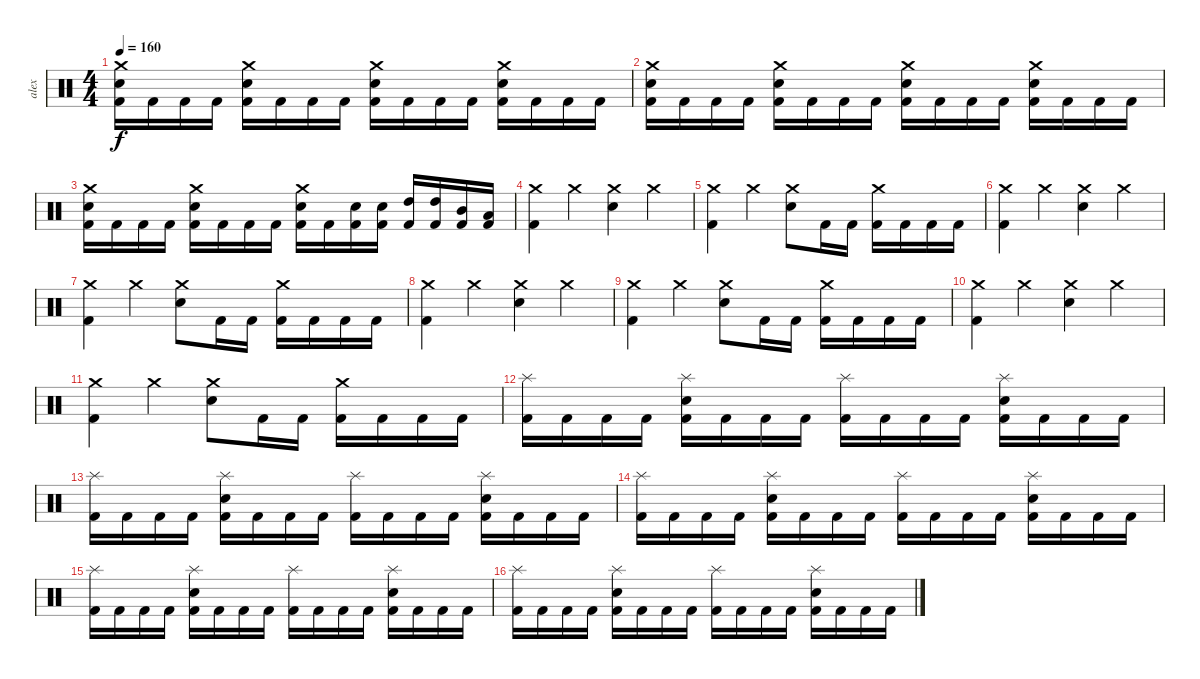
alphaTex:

\track ("alex" "alex") {instrument percussion}
\staff {score}
\articulation defaults
\ts (4 4)
\tempo 160
\clef neutral
\ks c
("Electric Snare (hit)" "Kick (hit) 2" "Crash medium (hit)").16{dy f} "Kick (hit) 2".16 "Kick (hit) 2".16 "Kick (hit) 2".16 ("Electric Snare (hit)" "Kick (hit) 2" "Crash medium (hit)").16 "Kick (hit) 2".16 "Kick (hit) 2".16 "Kick (hit) 2".16 ("Electric Snare (hit)" "Kick (hit) 2" "Crash medium (hit)").16 "Kick (hit) 2".16 "Kick (hit) 2".16 "Kick (hit) 2".16 ("Electric Snare (hit)" "Kick (hit) 2" "Crash medium (hit)").16 "Kick (hit) 2".16 "Kick (hit) 2".16 "Kick (hit) 2".16 |
("Electric Snare (hit)" "Kick (hit) 2" "Crash medium (hit)").16 "Kick (hit) 2".16 "Kick (hit) 2".16 "Kick (hit) 2".16 ("Electric Snare (hit)" "Kick (hit) 2" "Crash medium (hit)").16 "Kick (hit) 2".16 "Kick (hit) 2".16 "Kick (hit) 2".16 ("Electric Snare (hit)" "Kick (hit) 2" "Crash medium (hit)").16 "Kick (hit) 2".16 "Kick (hit) 2".16 "Kick (hit) 2".16 ("Electric Snare (hit)" "Kick (hit) 2" "Crash medium (hit)").16 "Kick (hit) 2".16 "Kick (hit) 2".16 "Kick (hit) 2".16 |
("Electric Snare (hit)" "Kick (hit) 2" "Crash medium (hit)").16 "Kick (hit) 2".16 "Kick (hit) 2".16 "Kick (hit) 2".16 ("Electric Snare (hit)" "Kick (hit) 2" "Crash medium (hit)").16 "Kick (hit) 2".16 "Kick (hit) 2".16 "Kick (hit) 2".16 ("Electric Snare (hit)" "Kick (hit) 2" "Crash medium (hit)").16 "Kick (hit) 2".16 ("Snare (hit) 2" "Kick (hit) 2").16 ("Snare (hit) 2" "Kick (hit) 2").16 ("High Tom (hit)" "Kick (hit) 2").16 ("High Tom (hit)" "Kick (hit) 2").16 ("Mid Tom (hit)" "Kick (hit) 2").16 ("Low Tom (hit)" "Kick (hit) 2").16 |
("Kick (hit) 2" "Crash medium (hit)").4 "Crash medium (hit)".4 ("Electric Snare (hit)" "Crash medium (hit)").4 "Crash medium (hit)".4 |
("Kick (hit) 2" "Crash medium (hit)").4 "Crash medium (hit)".4 ("Electric Snare (hit)" "Crash medium (hit)").8 "Kick (hit) 2".16 "Kick (hit) 2".16 ("Kick (hit) 2" "Crash medium (hit)").16 "Kick (hit) 2".16 "Kick (hit) 2".16 "Kick (hit) 2".16 |
("Kick (hit) 2" "Crash medium (hit)").4 "Crash medium (hit)".4 ("Electric Snare (hit)" "Crash medium (hit)").4 "Crash medium (hit)".4 |
("Kick (hit) 2" "Crash medium (hit)").4 "Crash medium (hit)".4 ("Electric Snare (hit)" "Crash medium (hit)").8 "Kick (hit) 2".16 "Kick (hit) 2".16 ("Kick (hit) 2" "Crash medium (hit)").16 "Kick (hit) 2".16 "Kick (hit) 2".16 "Kick (hit) 2".16 |
("Kick (hit) 2" "Crash medium (hit)").4 "Crash medium (hit)".4 ("Electric Snare (hit)" "Crash medium (hit)").4 "Crash medium (hit)".4 |
("Kick (hit) 2" "Crash medium (hit)").4 "Crash medium (hit)".4 ("Electric Snare (hit)" "Crash medium (hit)").8 "Kick (hit) 2".16 "Kick (hit) 2".16 ("Kick (hit) 2" "Crash medium (hit)").16 "Kick (hit) 2".16 "Kick (hit) 2".16 "Kick (hit) 2".16 |
("Kick (hit) 2" "Crash medium (hit)").4 "Crash medium (hit)".4 ("Electric Snare (hit)" "Crash medium (hit)").4 "Crash medium (hit)".4 |
("Kick (hit) 2" "Crash medium (hit)").4 "Crash medium (hit)".4 ("Electric Snare (hit)" "Crash medium (hit)").8 "Kick (hit) 2".16 "Kick (hit) 2".16 ("Kick (hit) 2" "Crash medium (hit)").16 "Kick (hit) 2".16 "Kick (hit) 2".16 "Kick (hit) 2".16 |
("Splash (hit)" "Kick (hit) 2").16 "Kick (hit) 2".16 "Kick (hit) 2".16 "Kick (hit) 2".16 ("Kick (hit) 2" "Electric Snare (hit)" "Splash (hit)").16 "Kick (hit) 2".16 "Kick (hit) 2".16 "Kick (hit) 2".16 ("Kick (hit) 2" "Splash (hit)").16 "Kick (hit) 2".16 "Kick (hit) 2".16 "Kick (hit) 2".16 ("Kick (hit) 2" "Splash (hit)" "Electric Snare (hit)").16 "Kick (hit) 2".16 "Kick (hit) 2".16 "Kick (hit) 2".16 |
("Splash (hit)" "Kick (hit) 2").16 "Kick (hit) 2".16 "Kick (hit) 2".16 "Kick (hit) 2".16 ("Kick (hit) 2" "Electric Snare (hit)" "Splash (hit)").16 "Kick (hit) 2".16 "Kick (hit) 2".16 "Kick (hit) 2".16 ("Kick (hit) 2" "Splash (hit)").16 "Kick (hit) 2".16 "Kick (hit) 2".16 "Kick (hit) 2".16 ("Kick (hit) 2" "Splash (hit)" "Electric Snare (hit)").16 "Kick (hit) 2".16 "Kick (hit) 2".16 "Kick (hit) 2".16 |
("Splash (hit)" "Kick (hit) 2").16 "Kick (hit) 2".16 "Kick (hit) 2".16 "Kick (hit) 2".16 ("Kick (hit) 2" "Electric Snare (hit)" "Splash (hit)").16 "Kick (hit) 2".16 "Kick (hit) 2".16 "Kick (hit) 2".16 ("Kick (hit) 2" "Splash (hit)").16 "Kick (hit) 2".16 "Kick (hit) 2".16 "Kick (hit) 2".16 ("Kick (hit) 2" "Splash (hit)" "Electric Snare (hit)").16 "Kick (hit) 2".16 "Kick (hit) 2".16 "Kick (hit) 2".16 |
("Splash (hit)" "Kick (hit) 2").16 "Kick (hit) 2".16 "Kick (hit) 2".16 "Kick (hit) 2".16 ("Kick (hit) 2" "Electric Snare (hit)" "Splash (hit)").16 "Kick (hit) 2".16 "Kick (hit) 2".16 "Kick (hit) 2".16 ("Kick (hit) 2" "Splash (hit)").16 "Kick (hit) 2".16 "Kick (hit) 2".16 "Kick (hit) 2".16 ("Kick (hit) 2" "Splash (hit)" "Electric Snare (hit)").16 "Kick (hit) 2".16 "Kick (hit) 2".16 "Kick (hit) 2".16 |
("Splash (hit)" "Kick (hit) 2").16 "Kick (hit) 2".16 "Kick (hit) 2".16 "Kick (hit) 2".16 ("Kick (hit) 2" "Electric Snare (hit)" "Splash (hit)").16 "Kick (hit) 2".16 "Kick (hit) 2".16 "Kick (hit) 2".16 ("Kick (hit) 2" "Splash (hit)").16 "Kick (hit) 2".16 "Kick (hit) 2".16 "Kick (hit) 2".16 ("Kick (hit) 2" "Splash (hit)" "Electric Snare (hit)").16 "Kick (hit) 2".16 "Kick (hit) 2".16 "Kick (hit) 2".16
